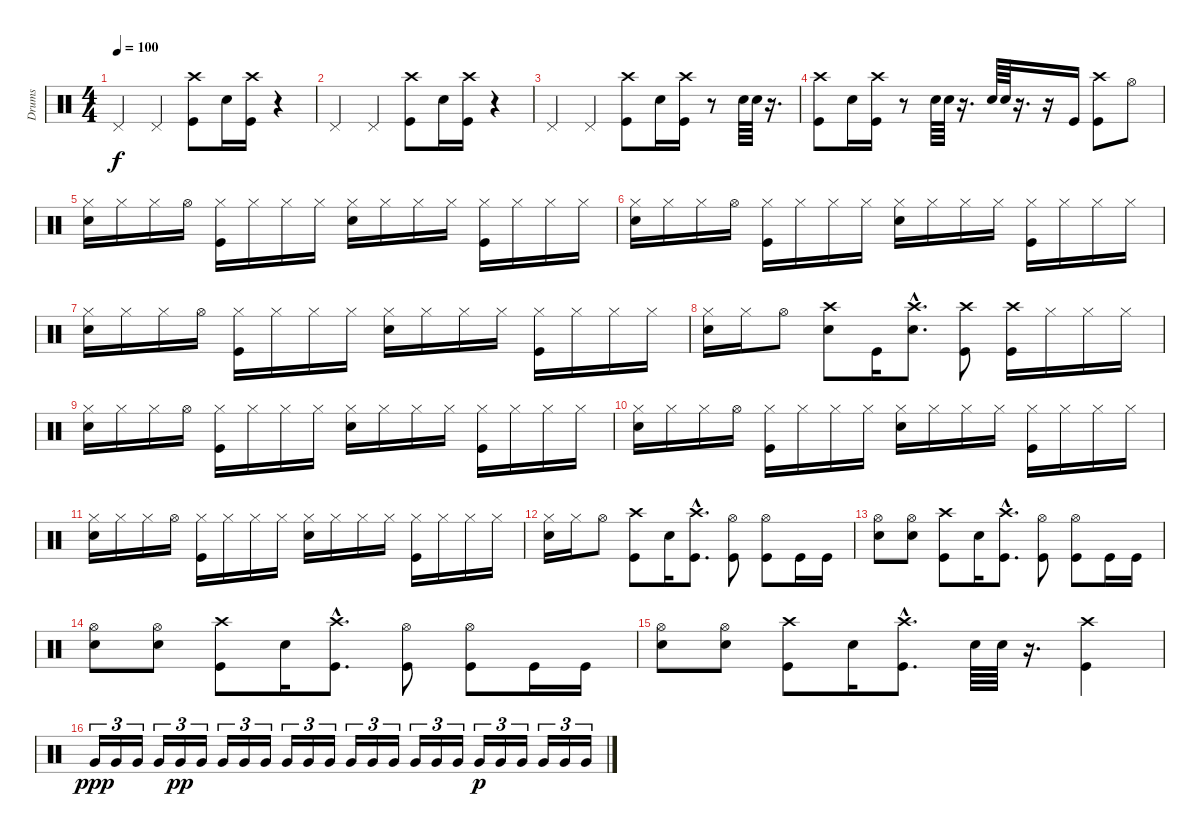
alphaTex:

\track ("Drums" "Drums") {instrument percussion}
\staff {score}
\articulation defaults
\ts (4 4)
\tempo 100
\clef neutral
\ks c "Pedal Hi-Hat (hit)".4{dy f} "Pedal Hi-Hat (hit)".4
("Crash high (hit)" "Kick (hit)").8 "Snare (hit) 2".16 ("Crash high (hit)" "Kick (hit)").16 r.4 |
"Pedal Hi-Hat (hit)".4 "Pedal Hi-Hat (hit)".4 ("Crash high (hit)" "Kick (hit)").8 "Snare (hit) 2".16 ("Crash high (hit)" "Kick (hit)").16 r.4 |
"Pedal Hi-Hat (hit)".4 "Pedal Hi-Hat (hit)".4 ("Crash high (hit)" "Kick (hit)").8 "Snare (hit) 2".16 ("Crash high (hit)" "Kick (hit)").16 r.8 "Snare (hit) 2".64 "Snare (hit) 2".64 r.16{d} |
("Crash high (hit)" "Kick (hit)").8 "Snare (hit) 2".16 ("Crash high (hit)" "Kick (hit)").16 r.8 "Snare (hit) 2".64 "Snare (hit) 2".64 r.16{d} "Snare (hit) 2".64 "Snare (hit) 2".64 r.16{d} r.16 "Kick (hit)".16 ("Crash high (hit)" "Kick (hit)").8 "Hi-Hat (open)".8 |
("Hi-Hat (closed)" "Snare (hit) 2").16 "Hi-Hat (closed)".16 "Hi-Hat (closed)".16 "Hi-Hat (open)".16 ("Hi-Hat (closed)" "Kick (hit)").16 "Hi-Hat (closed)".16 "Hi-Hat (closed)".16 "Hi-Hat (closed)".16 ("Hi-Hat (closed)" "Snare (hit) 2").16 "Hi-Hat (closed)".16 "Hi-Hat (closed)".16 "Hi-Hat (closed)".16 ("Hi-Hat (closed)" "Kick (hit)").16 "Hi-Hat (closed)".16 "Hi-Hat (closed)".16 "Hi-Hat (closed)".16 |
("Hi-Hat (closed)" "Snare (hit) 2").16 "Hi-Hat (closed)".16 "Hi-Hat (closed)".16 "Hi-Hat (open)".16 ("Hi-Hat (closed)" "Kick (hit)").16 "Hi-Hat (closed)".16 "Hi-Hat (closed)".16 "Hi-Hat (closed)".16 ("Hi-Hat (closed)" "Snare (hit) 2").16 "Hi-Hat (closed)".16 "Hi-Hat (closed)".16 "Hi-Hat (closed)".16 ("Hi-Hat (closed)" "Kick (hit)").16 "Hi-Hat (closed)".16 "Hi-Hat (closed)".16 "Hi-Hat (closed)".16 |
("Hi-Hat (closed)" "Snare (hit) 2").16 "Hi-Hat (closed)".16 "Hi-Hat (closed)".16 "Hi-Hat (open)".16 ("Hi-Hat (closed)" "Kick (hit)").16 "Hi-Hat (closed)".16 "Hi-Hat (closed)".16 "Hi-Hat (closed)".16 ("Hi-Hat (closed)" "Snare (hit) 2").16 "Hi-Hat (closed)".16 "Hi-Hat (closed)".16 "Hi-Hat (closed)".16 ("Hi-Hat (closed)" "Kick (hit)").16 "Hi-Hat (closed)".16 "Hi-Hat (closed)".16 "Hi-Hat (closed)".16 |
("Hi-Hat (closed)" "Snare (hit) 2").16 "Hi-Hat (closed)".16 "Hi-Hat (open)".8 ("Crash high (hit)" "Snare (hit) 2").8 "Kick (hit)".16 ("Crash high (hit)"{hac} "Snare (hit) 2"{hac}).8{d} ("Crash high (hit)" "Kick (hit)").8 ("Crash high (hit)" "Kick (hit)").16 "Hi-Hat (closed)".16 "Hi-Hat (closed)".16 "Hi-Hat (closed)".16 |
("Hi-Hat (closed)" "Snare (hit) 2").16 "Hi-Hat (closed)".16 "Hi-Hat (closed)".16 "Hi-Hat (open)".16 ("Hi-Hat (closed)" "Kick (hit)").16 "Hi-Hat (closed)".16 "Hi-Hat (closed)".16 "Hi-Hat (closed)".16 ("Hi-Hat (closed)" "Snare (hit) 2").16 "Hi-Hat (closed)".16 "Hi-Hat (closed)".16 "Hi-Hat (closed)".16 ("Hi-Hat (closed)" "Kick (hit)").16 "Hi-Hat (closed)".16 "Hi-Hat (closed)".16 "Hi-Hat (closed)".16 |
("Hi-Hat (closed)" "Snare (hit) 2").16 "Hi-Hat (closed)".16 "Hi-Hat (closed)".16 "Hi-Hat (open)".16 ("Hi-Hat (closed)" "Kick (hit)").16 "Hi-Hat (closed)".16 "Hi-Hat (closed)".16 "Hi-Hat (closed)".16 ("Hi-Hat (closed)" "Snare (hit) 2").16 "Hi-Hat (closed)".16 "Hi-Hat (closed)".16 "Hi-Hat (closed)".16 ("Hi-Hat (closed)" "Kick (hit)").16 "Hi-Hat (closed)".16 "Hi-Hat (closed)".16 "Hi-Hat (closed)".16 |
("Hi-Hat (closed)" "Snare (hit) 2").16 "Hi-Hat (closed)".16 "Hi-Hat (closed)".16 "Hi-Hat (open)".16 ("Hi-Hat (closed)" "Kick (hit)").16 "Hi-Hat (closed)".16 "Hi-Hat (closed)".16 "Hi-Hat (closed)".16 ("Hi-Hat (closed)" "Snare (hit) 2").16 "Hi-Hat (closed)".16 "Hi-Hat (closed)".16 "Hi-Hat (closed)".16 ("Hi-Hat (closed)" "Kick (hit)").16 "Hi-Hat (closed)".16 "Hi-Hat (closed)".16 "Hi-Hat (closed)".16 |
("Hi-Hat (closed)" "Snare (hit) 2").16 "Hi-Hat (closed)".16 "Hi-Hat (open)".8 ("Crash high (hit)" "Kick (hit)").8 "Snare (hit) 2".16 ("Crash high (hit)"{hac} "Kick (hit)"{hac}).8{d} ("Hi-Hat (open)" "Kick (hit)").8 ("Hi-Hat (open)" "Kick (hit)").8 "Kick (hit)".16 "Kick (hit)".16 |
("Hi-Hat (open)" "Snare (hit) 2").8 ("Hi-Hat (open)" "Snare (hit) 2").8 ("Crash high (hit)" "Kick (hit)").8 "Snare (hit) 2".16 ("Crash high (hit)"{hac} "Kick (hit)"{hac}).8{d} ("Hi-Hat (open)" "Kick (hit)").8 ("Hi-Hat (open)" "Kick (hit)").8 "Kick (hit)".16 "Kick (hit)".16 |
("Hi-Hat (open)" "Snare (hit) 2").8 ("Hi-Hat (open)" "Snare (hit) 2").8 ("Crash high (hit)" "Kick (hit)").8 "Snare (hit) 2".16 ("Crash high (hit)"{hac} "Kick (hit)"{hac}).8{d} ("Hi-Hat (open)" "Kick (hit)").8 ("Hi-Hat (open)" "Kick (hit)").8 "Kick (hit)".16 "Kick (hit)".16 |
("Hi-Hat (open)" "Snare (hit) 2").8 ("Hi-Hat (open)" "Snare (hit) 2").8 ("Crash high (hit)" "Kick (hit)").8 "Snare (hit) 2".16 ("Crash high (hit)"{hac} "Kick (hit)"{hac}).8{d} "Snare (hit) 2".64 "Snare (hit) 2".64 r.16{d} ("Crash high (hit)" "Kick (hit)").4 |
"Very Low Tom (hit)".16{tu (3 2) dy ppp} "Very Low Tom (hit)".16{tu (3 2)} "Very Low Tom (hit)".16{tu (3 2)} "Very Low Tom (hit)".16{tu (3 2)} "Very Low Tom (hit)".16{tu (3 2) dy pp} "Very Low Tom (hit)".16{tu (3 2)} "Very Low Tom (hit)".16{tu (3 2)} "Very Low Tom (hit)".16{tu (3 2)} "Very Low Tom (hit)".16{tu (3 2)} "Very Low Tom (hit)".16{tu (3 2)} "Very Low Tom (hit)".16{tu (3 2)} "Very Low Tom (hit)".16{tu (3 2)} "Very Low Tom (hit)".16{tu (3 2)} "Very Low Tom (hit)".16{tu (3 2)} "Very Low Tom (hit)".16{tu (3 2)} "Very Low Tom (hit)".16{tu (3 2)} "Very Low Tom (hit)".16{tu (3 2)} "Very Low Tom (hit)".16{tu (3 2)} "Very Low Tom (hit)".16{tu (3 2) dy p} "Very Low Tom (hit)".16{tu (3 2)} "Very Low Tom (hit)".16{tu (3 2)} "Very Low Tom (hit)".16{tu (3 2)} "Very Low Tom (hit)".16{tu (3 2)} "Very Low Tom (hit)".16{tu (3 2)}
